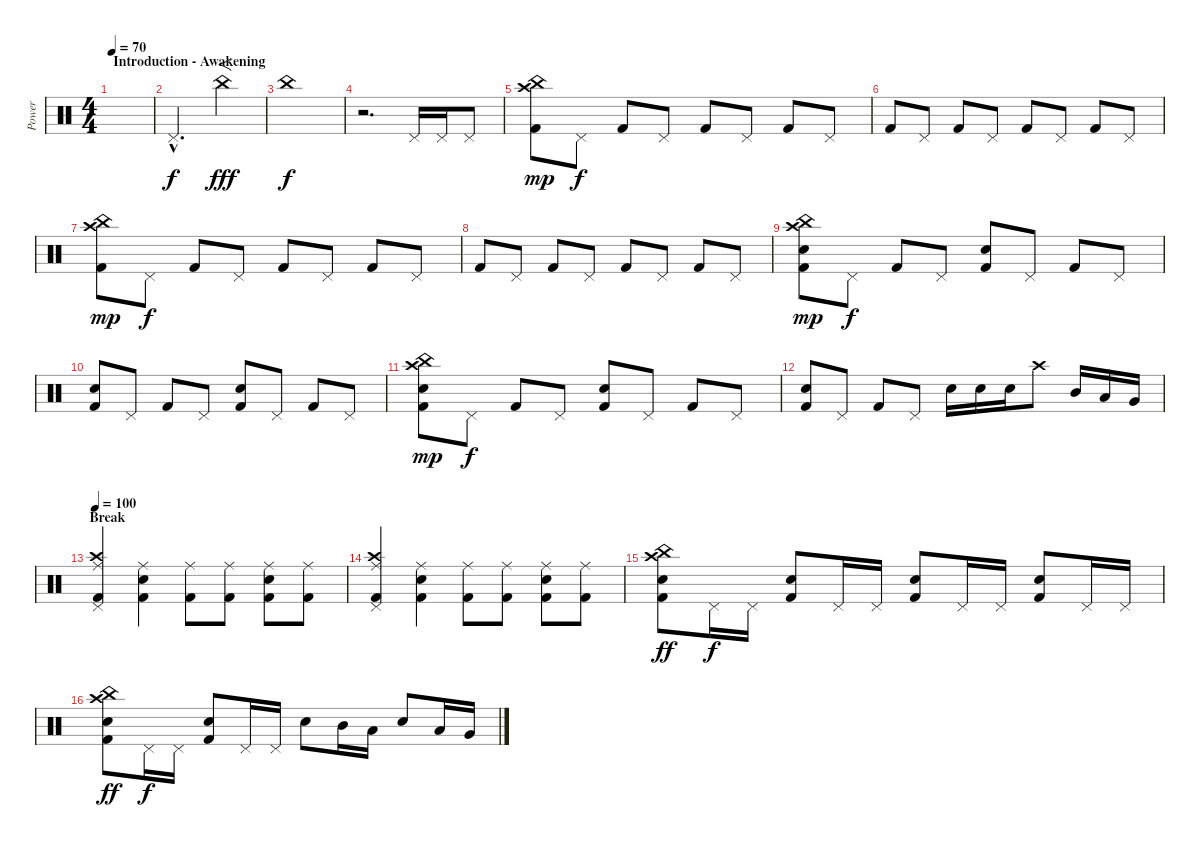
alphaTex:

\track ("Power" "Power") {instrument percussion}
\staff {score}
\articulation defaults
\ts (4 4)
\section ("" "Introduction - Awakening")
\tempo 70
\clef neutral
\ks c
|
"Pedal Hi-Hat (hit)"{hac}.2{d} "China (hit)".4{f dy fff} |
"China (hit)".1{dy f} |
r.2{d} "Pedal Hi-Hat (hit)".16 "Pedal Hi-Hat (hit)".16 "Pedal Hi-Hat (hit)".8 |
("China (hit)" "Crash high (hit)" "Kick (hit) 2").8{dy mp} "Pedal Hi-Hat (hit)".8{dy f} "Kick (hit) 2".8 "Pedal Hi-Hat (hit)".8 "Kick (hit) 2".8 "Pedal Hi-Hat (hit)".8 "Kick (hit) 2".8 "Pedal Hi-Hat (hit)".8 |
"Kick (hit) 2".8 "Pedal Hi-Hat (hit)".8 "Kick (hit) 2".8 "Pedal Hi-Hat (hit)".8 "Kick (hit) 2".8 "Pedal Hi-Hat (hit)".8 "Kick (hit) 2".8 "Pedal Hi-Hat (hit)".8 |
("China (hit)" "Crash high (hit)" "Kick (hit) 2").8{dy mp} "Pedal Hi-Hat (hit)".8{dy f} "Kick (hit) 2".8 "Pedal Hi-Hat (hit)".8 "Kick (hit) 2".8 "Pedal Hi-Hat (hit)".8 "Kick (hit) 2".8 "Pedal Hi-Hat (hit)".8 |
"Kick (hit) 2".8 "Pedal Hi-Hat (hit)".8 "Kick (hit) 2".8 "Pedal Hi-Hat (hit)".8 "Kick (hit) 2".8 "Pedal Hi-Hat (hit)".8 "Kick (hit) 2".8 "Pedal Hi-Hat (hit)".8 |
("China (hit)" "Crash high (hit)" "Electric Snare (hit)" "Kick (hit) 2").8{dy mp} "Pedal Hi-Hat (hit)".8{dy f} "Kick (hit) 2".8 "Pedal Hi-Hat (hit)".8 ("Electric Snare (hit)" "Kick (hit) 2").8 "Pedal Hi-Hat (hit)".8 "Kick (hit) 2".8 "Pedal Hi-Hat (hit)".8 |
("Electric Snare (hit)" "Kick (hit) 2").8 "Pedal Hi-Hat (hit)".8 "Kick (hit) 2".8 "Pedal Hi-Hat (hit)".8 ("Electric Snare (hit)" "Kick (hit) 2").8 "Pedal Hi-Hat (hit)".8 "Kick (hit) 2".8 "Pedal Hi-Hat (hit)".8 |
("China (hit)" "Crash high (hit)" "Electric Snare (hit)" "Kick (hit) 2").8{dy mp} "Pedal Hi-Hat (hit)".8{dy f} "Kick (hit) 2".8 "Pedal Hi-Hat (hit)".8 ("Electric Snare (hit)" "Kick (hit) 2").8 "Pedal Hi-Hat (hit)".8 "Kick (hit) 2".8 "Pedal Hi-Hat (hit)".8 |
("Electric Snare (hit)" "Kick (hit) 2").8 "Pedal Hi-Hat (hit)".8 "Kick (hit) 2".8 "Pedal Hi-Hat (hit)".8 "Electric Snare (hit)".16 "Electric Snare (hit)".16 "Electric Snare (hit)".16 "Crash high (hit)".8 "Mid Tom (hit)".16 "Low Tom (hit)".16 "Very Low Tom (hit)".16 |
\section ("" "Break")
\tempo 100
("Crash high (hit)" "Pedal Hi-Hat (hit)" "Ride (middle)" "Kick (hit) 2").4 ("Electric Snare (hit)" "Ride (middle)" "Kick (hit) 2").4 ("Ride (middle)" "Kick (hit) 2").8 ("Ride (middle)" "Kick (hit) 2").8 ("Electric Snare (hit)" "Ride (middle)" "Kick (hit) 2").8 ("Ride (middle)" "Kick (hit) 2").8 |
("Crash high (hit)" "Pedal Hi-Hat (hit)" "Ride (middle)" "Kick (hit) 2").4 ("Electric Snare (hit)" "Ride (middle)" "Kick (hit) 2").4 ("Ride (middle)" "Kick (hit) 2").8 ("Ride (middle)" "Kick (hit) 2").8 ("Electric Snare (hit)" "Ride (middle)" "Kick (hit) 2").8 ("Ride (middle)" "Kick (hit) 2").8 |
("Crash high (hit)" "China (hit)" "Kick (hit) 2" "Electric Snare (hit)").8{dy ff} "Pedal Hi-Hat (hit)".16{dy f} "Pedal Hi-Hat (hit)".16 ("Kick (hit) 2" "Electric Snare (hit)").8 "Pedal Hi-Hat (hit)".16 "Pedal Hi-Hat (hit)".16 ("Kick (hit) 2" "Electric Snare (hit)").8 "Pedal Hi-Hat (hit)".16 "Pedal Hi-Hat (hit)".16 ("Kick (hit) 2" "Electric Snare (hit)").8 "Pedal Hi-Hat (hit)".16 "Pedal Hi-Hat (hit)".16 |
("Crash high (hit)" "China (hit)" "Kick (hit) 2" "Electric Snare (hit)").8{dy ff} "Pedal Hi-Hat (hit)".16{dy f} "Pedal Hi-Hat (hit)".16 ("Kick (hit) 2" "Electric Snare (hit)").8 "Pedal Hi-Hat (hit)".16 "Pedal Hi-Hat (hit)".16 "Electric Snare (hit)".8 "Mid Tom (hit)".16 "Low Tom (hit)".16 "Electric Snare (hit)".8 "Low Tom (hit)".16 "Very Low Tom (hit)".16
